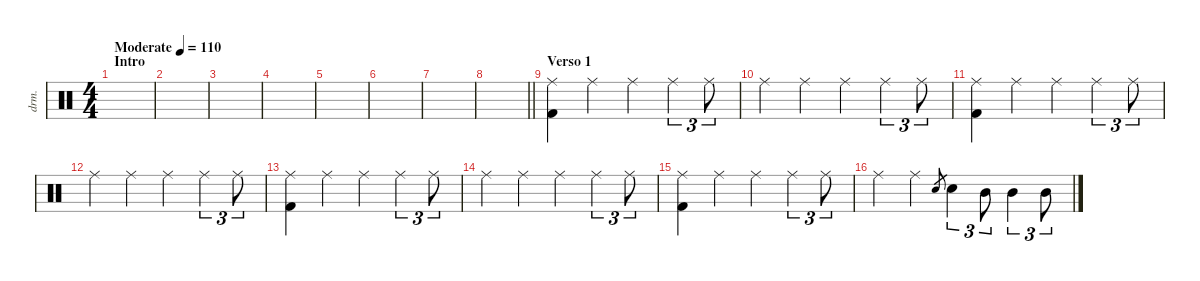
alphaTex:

\defaultSystemsLayout 4
\hideDynamics
\useSystemSignSeparator
\otherSystemsTrackNameOrientation horizontal
\extendBarLines
\track ("Drums" "drm.") {instrument percussion}
\staff {score}
\articulation defaults
\ts (4 4)
\beaming (8 2 2 2 2)
\section ("" "Intro")
\tempo (110 "Moderate")
\clef neutral
\ks c
|
|
|
|
|
|
|
\barLineRight lightlight
|
\section ("" "Verso 1")
("Ride (middle)" "Kick (hit) 2").4{beam Down} "Ride (middle)".4{dy mp beam Down} "Ride (middle)".4{beam Down} "Ride (middle)".4{tu (3 2) beam Down} "Ride (middle)".8{tu (3 2) beam Down} |
"Ride (middle)".4{beam Down} "Ride (middle)".4{beam Down} "Ride (middle)".4{beam Down} "Ride (middle)".4{tu (3 2) beam Down} "Ride (middle)".8{tu (3 2) beam Down} |
("Ride (middle)" "Kick (hit) 2").4{dy f beam Down} "Ride (middle)".4{dy mp beam Down} "Ride (middle)".4{beam Down} "Ride (middle)".4{tu (3 2) beam Down} "Ride (middle)".8{tu (3 2) beam Down} |
"Ride (middle)".4{beam Down} "Ride (middle)".4{beam Down} "Ride (middle)".4{beam Down} "Ride (middle)".4{tu (3 2) beam Down} "Ride (middle)".8{tu (3 2) beam Down} |
("Ride (middle)" "Kick (hit) 2").4{dy f beam Down} "Ride (middle)".4{dy mp beam Down} "Ride (middle)".4{beam Down} "Ride (middle)".4{tu (3 2) beam Down} "Ride (middle)".8{tu (3 2) beam Down} |
"Ride (middle)".4{beam Down} "Ride (middle)".4{beam Down} "Ride (middle)".4{beam Down} "Ride (middle)".4{tu (3 2) beam Down} "Ride (middle)".8{tu (3 2) beam Down} |
("Ride (middle)" "Kick (hit) 2").4{dy f beam Down} "Ride (middle)".4{dy mp beam Down} "Ride (middle)".4{beam Down} "Ride (middle)".4{tu (3 2) beam Down} "Ride (middle)".8{tu (3 2) beam Down} |
"Ride (middle)".4{beam Down} "Ride (middle)".4{beam Down} "Snare (hit) 2".8{gr dy p beam Up} "Snare (hit) 2".4{tu (3 2) dy f beam Down} "Mid Tom (hit)".8{tu (3 2) beam Down} "Mid Tom (hit)".4{tu (3 2) beam Down} "Mid Tom (hit)".8{tu (3 2) beam Down}
